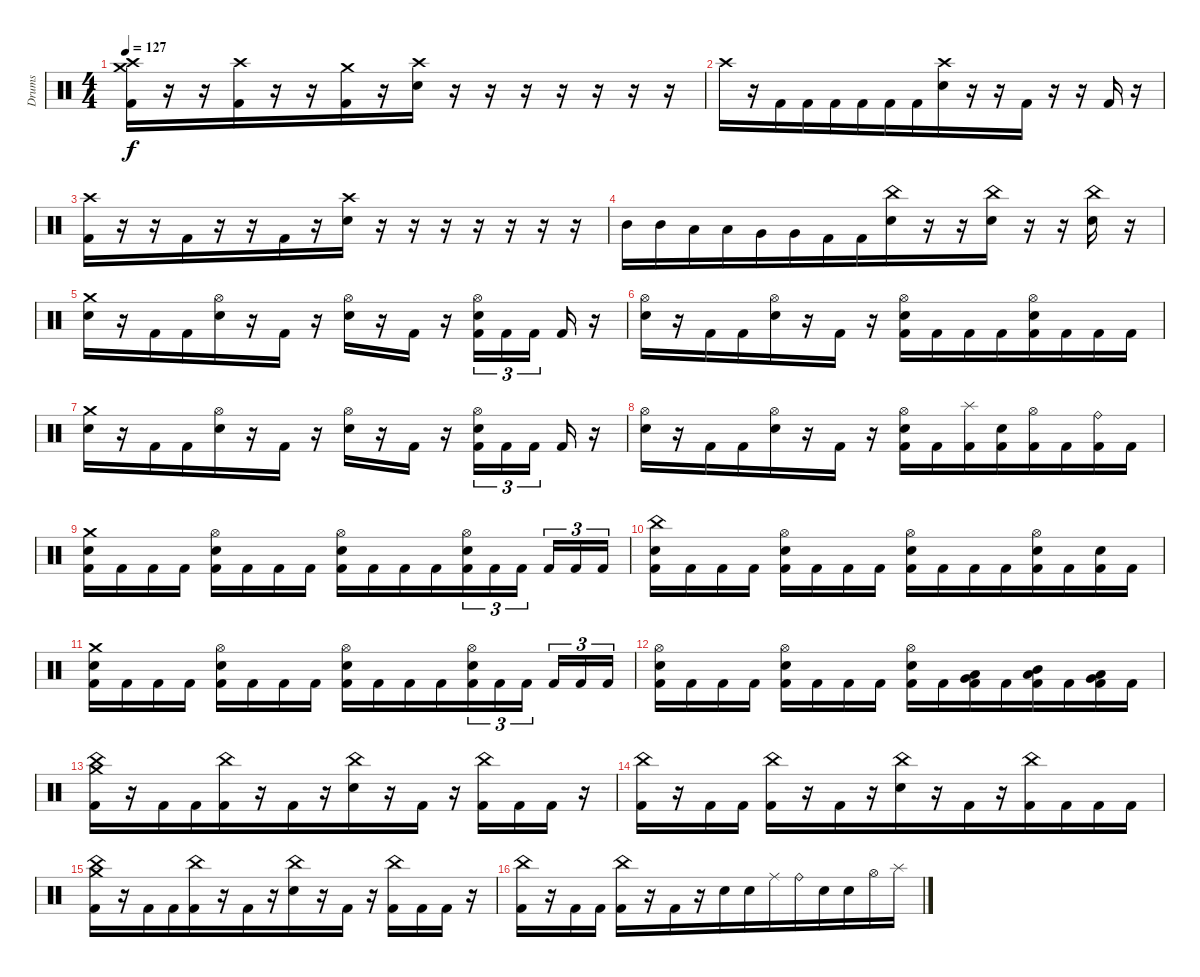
\track ("Drums" "Drums") {instrument percussion}
\staff {score}
\articulation defaults
\ts (4 4)
\tempo 127
\clef neutral
\ks c
("Crash medium (hit)" "Crash high (hit)" "Kick (hit) 2").16{dy f beam merge} r.16 r.16 ("Crash high (hit)" "Kick (hit) 2").16{beam merge} r.16 r.16 ("Crash medium (hit)" "Kick (hit) 2").16{beam merge} r.16 ("Crash high (hit)" "Electric Snare (hit)").16{beam merge} r.16{beam merge} r.16{beam merge} r.16 r.16{beam merge} r.16{beam merge} r.16 r.16 |
"Crash high (hit)".16{beam merge} r.16{beam merge} "Kick (hit) 2".16 "Kick (hit) 2".16{beam merge} "Kick (hit) 2".16{beam merge} "Kick (hit) 2".16 "Kick (hit) 2".16 "Kick (hit) 2".16{beam merge} ("Crash high (hit)" "Electric Snare (hit)").16 r.16 r.16{beam merge} "Kick (hit) 2".16 r.16 r.16 "Kick (hit) 2".16{beam merge} r.16 |
("Crash high (hit)" "Kick (hit) 2").16{beam merge} r.16 r.16 "Kick (hit) 2".16{beam merge} r.16 r.16 "Kick (hit) 2".16{beam merge} r.16 ("Crash high (hit)" "Electric Snare (hit)").16{beam merge} r.16{beam merge} r.16{beam merge} r.16 r.16{beam merge} r.16{beam merge} r.16{beam merge} r.16 |
"Mid Tom (hit)".16 "Mid Tom (hit)".16{beam merge} "Low Tom (hit)".16{beam merge} "Low Tom (hit)".16{beam merge} "Very Low Tom (hit)".16{beam merge} "Very Low Tom (hit)".16 "Kick (hit) 2".16 "Kick (hit) 2".16{beam merge} ("China (hit)" "Electric Snare (hit)").16 r.16 r.16{beam merge} ("China (hit)" "Electric Snare (hit)").16 r.16 r.16 ("China (hit)" "Electric Snare (hit)").16{beam merge} r.16 |
("Crash medium (hit)" "Electric Snare (hit)").16{beam merge} r.16 "Kick (hit) 2".16 "Kick (hit) 2".16{beam merge} ("Hi-Hat (open)" "Electric Snare (hit)").16{beam merge} r.16 "Kick (hit) 2".16 r.16 ("Hi-Hat (open)" "Electric Snare (hit)").16{beam merge} r.16 "Kick (hit) 2".16 r.16{beam merge} ("Hi-Hat (open)" "Electric Snare (hit)" "Kick (hit) 2").16{tu (3 2)} "Kick (hit) 2".16{tu (3 2) beam merge} "Kick (hit) 2".16{tu (3 2) beam splitsecondary} "Kick (hit) 2".16{beam merge} r.16 |
("Hi-Hat (open)" "Electric Snare (hit)").16{beam merge} r.16 "Kick (hit) 2".16 "Kick (hit) 2".16{beam merge} ("Hi-Hat (open)" "Electric Snare (hit)").16{beam merge} r.16 "Kick (hit) 2".16 r.16 ("Hi-Hat (open)" "Electric Snare (hit)" "Kick (hit) 2").16{beam merge} "Kick (hit) 2".16 "Kick (hit) 2".16 "Kick (hit) 2".16{beam merge} ("Hi-Hat (open)" "Electric Snare (hit)" "Kick (hit) 2").16{beam merge} "Kick (hit) 2".16{beam merge} "Kick (hit) 2".16{beam merge} "Kick (hit) 2".16 |
("Crash medium (hit)" "Electric Snare (hit)").16{beam merge} r.16 "Kick (hit) 2".16 "Kick (hit) 2".16{beam merge} ("Hi-Hat (open)" "Electric Snare (hit)").16{beam merge} r.16 "Kick (hit) 2".16 r.16 ("Hi-Hat (open)" "Electric Snare (hit)").16{beam merge} r.16 "Kick (hit) 2".16 r.16{beam merge} ("Hi-Hat (open)" "Electric Snare (hit)" "Kick (hit) 2").16{tu (3 2)} "Kick (hit) 2".16{tu (3 2) beam merge} "Kick (hit) 2".16{tu (3 2) beam splitsecondary} "Kick (hit) 2".16{beam merge} r.16 |
("Hi-Hat (open)" "Electric Snare (hit)").16{beam merge} r.16 "Kick (hit) 2".16 "Kick (hit) 2".16{beam merge} ("Hi-Hat (open)" "Electric Snare (hit)").16{beam merge} r.16 "Kick (hit) 2".16 r.16 ("Hi-Hat (open)" "Electric Snare (hit)" "Kick (hit) 2").16{beam merge} "Kick (hit) 2".16 ("Splash (hit)" "Kick (hit) 2").16 ("Electric Snare (hit)" "Kick (hit) 2").16{beam merge} ("Hi-Hat (open)" "Kick (hit) 2").16{beam merge} "Kick (hit) 2".16{beam merge} ("Ride (bell)" "Kick (hit) 2").16{beam merge} "Kick (hit) 2".16 |
("Crash medium (hit)" "Electric Snare (hit)" "Kick (hit) 2").16{beam merge} "Kick (hit) 2".16{beam merge} "Kick (hit) 2".16 "Kick (hit) 2".16 ("Hi-Hat (open)" "Electric Snare (hit)" "Kick (hit) 2").16 "Kick (hit) 2".16 "Kick (hit) 2".16 "Kick (hit) 2".16 ("Hi-Hat (open)" "Electric Snare (hit)" "Kick (hit) 2").16 "Kick (hit) 2".16 "Kick (hit) 2".16{beam merge} "Kick (hit) 2".16{beam merge} ("Hi-Hat (open)" "Electric Snare (hit)" "Kick (hit) 2").16{tu (3 2)} "Kick (hit) 2".16{tu (3 2)} "Kick (hit) 2".16{tu (3 2) beam splitsecondary} "Kick (hit) 2".16{tu (3 2) beam merge} "Kick (hit) 2".16{tu (3 2) beam merge} "Kick (hit) 2".16{tu (3 2)} |
("China (hit)" "Electric Snare (hit)" "Kick (hit) 2").16{beam merge} "Kick (hit) 2".16{beam merge} "Kick (hit) 2".16 "Kick (hit) 2".16 ("Hi-Hat (open)" "Electric Snare (hit)" "Kick (hit) 2").16 "Kick (hit) 2".16 "Kick (hit) 2".16 "Kick (hit) 2".16 ("Hi-Hat (open)" "Electric Snare (hit)" "Kick (hit) 2").16 "Kick (hit) 2".16 "Kick (hit) 2".16{beam merge} "Kick (hit) 2".16{beam merge} ("Hi-Hat (open)" "Electric Snare (hit)" "Kick (hit) 2").16 "Kick (hit) 2".16{beam merge} ("Electric Snare (hit)" "Kick (hit) 2").16{beam merge} "Kick (hit) 2".16 |
("Crash medium (hit)" "Electric Snare (hit)" "Kick (hit) 2").16{beam merge} "Kick (hit) 2".16{beam merge} "Kick (hit) 2".16 "Kick (hit) 2".16 ("Hi-Hat (open)" "Electric Snare (hit)" "Kick (hit) 2").16 "Kick (hit) 2".16 "Kick (hit) 2".16 "Kick (hit) 2".16 ("Hi-Hat (open)" "Electric Snare (hit)" "Kick (hit) 2").16 "Kick (hit) 2".16 "Kick (hit) 2".16{beam merge} "Kick (hit) 2".16{beam merge} ("Hi-Hat (open)" "Electric Snare (hit)" "Kick (hit) 2").16{tu (3 2)} "Kick (hit) 2".16{tu (3 2)} "Kick (hit) 2".16{tu (3 2) beam splitsecondary} "Kick (hit) 2".16{tu (3 2) beam merge} "Kick (hit) 2".16{tu (3 2)} "Kick (hit) 2".16{tu (3 2)} |
("Hi-Hat (open)" "Electric Snare (hit)" "Kick (hit) 2").16{beam merge} "Kick (hit) 2".16{beam merge} "Kick (hit) 2".16 "Kick (hit) 2".16 ("Hi-Hat (open)" "Electric Snare (hit)" "Kick (hit) 2").16 "Kick (hit) 2".16 "Kick (hit) 2".16 "Kick (hit) 2".16 ("Hi-Hat (open)" "Electric Snare (hit)" "Kick (hit) 2").16 "Kick (hit) 2".16 ("Very Low Tom (hit)" "Low Tom (hit)" "Kick (hit) 2").16{beam merge} "Kick (hit) 2".16{beam merge} ("Mid Tom (hit)" "Low Tom (hit)" "Kick (hit) 2").16 "Kick (hit) 2".16{beam merge} ("Very Low Tom (hit)" "Low Tom (hit)" "Kick (hit) 2").16{beam merge} "Kick (hit) 2".16 |
("Crash medium (hit)" "China (hit)" "Kick (hit) 2").16{beam merge} r.16{beam merge} "Kick (hit) 2".16{beam merge} "Kick (hit) 2".16{beam merge} ("China (hit)" "Kick (hit) 2").16{beam merge} r.16{beam merge} "Kick (hit) 2".16{beam merge} r.16 ("China (hit)" "Electric Snare (hit)").16 r.16 "Kick (hit) 2".16 r.16{beam merge} ("China (hit)" "Kick (hit) 2").16{beam merge} "Kick (hit) 2".16 "Kick (hit) 2".16 r.16 |
("China (hit)" "Kick (hit) 2").16{beam merge} r.16 "Kick (hit) 2".16{beam merge} "Kick (hit) 2".16 ("China (hit)" "Kick (hit) 2").16 r.16 "Kick (hit) 2".16{beam merge} r.16 ("China (hit)" "Electric Snare (hit)").16{beam merge} r.16 "Kick (hit) 2".16{beam merge} r.16{beam merge} ("China (hit)" "Kick (hit) 2").16{beam merge} "Kick (hit) 2".16{beam merge} "Kick (hit) 2".16 "Kick (hit) 2".16 |
("Crash medium (hit)" "China (hit)" "Kick (hit) 2").16{beam merge} r.16{beam merge} "Kick (hit) 2".16{beam merge} "Kick (hit) 2".16{beam merge} ("China (hit)" "Kick (hit) 2").16{beam merge} r.16{beam merge} "Kick (hit) 2".16{beam merge} r.16 ("China (hit)" "Electric Snare (hit)").16 r.16 "Kick (hit) 2".16 r.16{beam merge} ("China (hit)" "Kick (hit) 2").16{beam merge} "Kick (hit) 2".16 "Kick (hit) 2".16 r.16 |
("China (hit)" "Kick (hit) 2").16{beam merge} r.16 "Kick (hit) 2".16{beam merge} "Kick (hit) 2".16 ("China (hit)" "Kick (hit) 2").16 r.16 "Kick (hit) 2".16{beam merge} r.16 "Electric Snare (hit)".16{beam merge} "Electric Snare (hit)".16 "Ride (middle)".16{beam merge} "Ride (bell)".16{beam merge} "Electric Snare (hit)".16{beam merge} "Electric Snare (hit)".16{beam merge} "Hi-Hat (open)".16 "Splash (hit)".16
